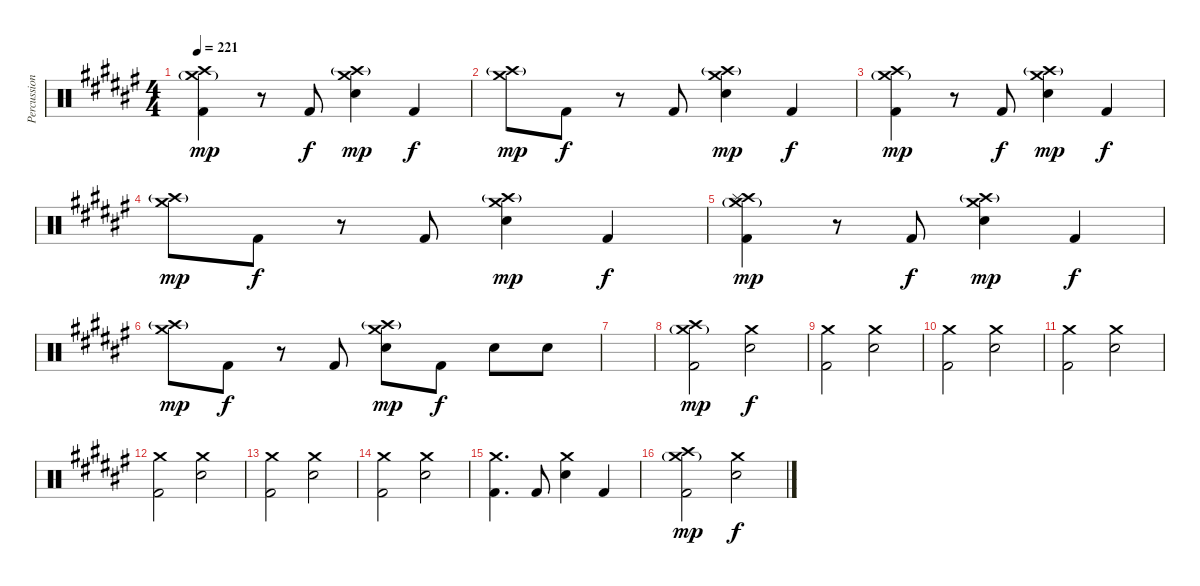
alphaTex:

\track ("Percussions" "Percussion") {instrument percussion}
\staff {score}
\articulation defaults
\ts (4 4)
\tempo 221
\clef neutral
\ks d#minor
("Crash medium (hit)"{g} "Crash high (hit)" "Kick (hit) 2").4{dy mp} r.8 "Kick (hit) 2".8{dy f} ("Crash medium (hit)" "Crash high (hit)"{g} "Electric Snare (hit)").4{dy mp} "Kick (hit) 2".4{dy f} |
("Crash medium (hit)" "Crash high (hit)"{g}).8{dy mp} "Kick (hit) 2".8{dy f} r.8 "Kick (hit) 2".8 ("Crash medium (hit)" "Crash high (hit)"{g} "Electric Snare (hit)").4{dy mp} "Kick (hit) 2".4{dy f} |
("Crash medium (hit)"{g} "Crash high (hit)" "Kick (hit) 2").4{dy mp} r.8 "Kick (hit) 2".8{dy f} ("Crash medium (hit)" "Crash high (hit)"{g} "Electric Snare (hit)").4{dy mp} "Kick (hit) 2".4{dy f} |
("Crash medium (hit)" "Crash high (hit)"{g}).8{dy mp} "Kick (hit) 2".8{dy f} r.8 "Kick (hit) 2".8 ("Crash medium (hit)" "Crash high (hit)"{g} "Electric Snare (hit)").4{dy mp} "Kick (hit) 2".4{dy f} |
("Crash medium (hit)"{g} "Crash high (hit)" "Splash (hit)" "Kick (hit) 2").4{dy mp} r.8 "Kick (hit) 2".8{dy f} ("Crash medium (hit)" "Crash high (hit)"{g} "Electric Snare (hit)").4{dy mp} "Kick (hit) 2".4{dy f} |
("Crash medium (hit)" "Crash high (hit)"{g}).8{dy mp} "Kick (hit) 2".8{dy f} r.8 "Kick (hit) 2".8 ("Crash medium (hit)" "Crash high (hit)"{g} "Electric Snare (hit)").8{dy mp} "Kick (hit) 2".8{dy f} "Electric Snare (hit)".8 "Electric Snare (hit)".8 |
|
("Crash medium (hit)"{g} "Crash high (hit)" "Kick (hit) 2").2{dy mp} ("Crash medium (hit)" "Electric Snare (hit)").2{dy f} |
("Crash medium (hit)" "Kick (hit) 2").2 ("Crash medium (hit)" "Electric Snare (hit)").2 |
("Crash medium (hit)" "Kick (hit) 2").2 ("Crash medium (hit)" "Electric Snare (hit)").2 |
("Crash medium (hit)" "Kick (hit) 2").2 ("Crash medium (hit)" "Electric Snare (hit)").2 |
("Crash medium (hit)" "Kick (hit) 2").2 ("Crash medium (hit)" "Electric Snare (hit)").2 |
("Crash medium (hit)" "Kick (hit) 2").2 ("Crash medium (hit)" "Electric Snare (hit)").2 |
("Crash medium (hit)" "Kick (hit) 2").2 ("Crash medium (hit)" "Electric Snare (hit)").2 |
("Crash medium (hit)" "Kick (hit) 2").4{d} "Kick (hit) 2".8 ("Crash medium (hit)" "Electric Snare (hit)").4 "Kick (hit) 2".4 |
("Crash medium (hit)"{g} "Crash high (hit)" "Kick (hit) 2").2{dy mp} ("Crash medium (hit)" "Electric Snare (hit)").2{dy f}
